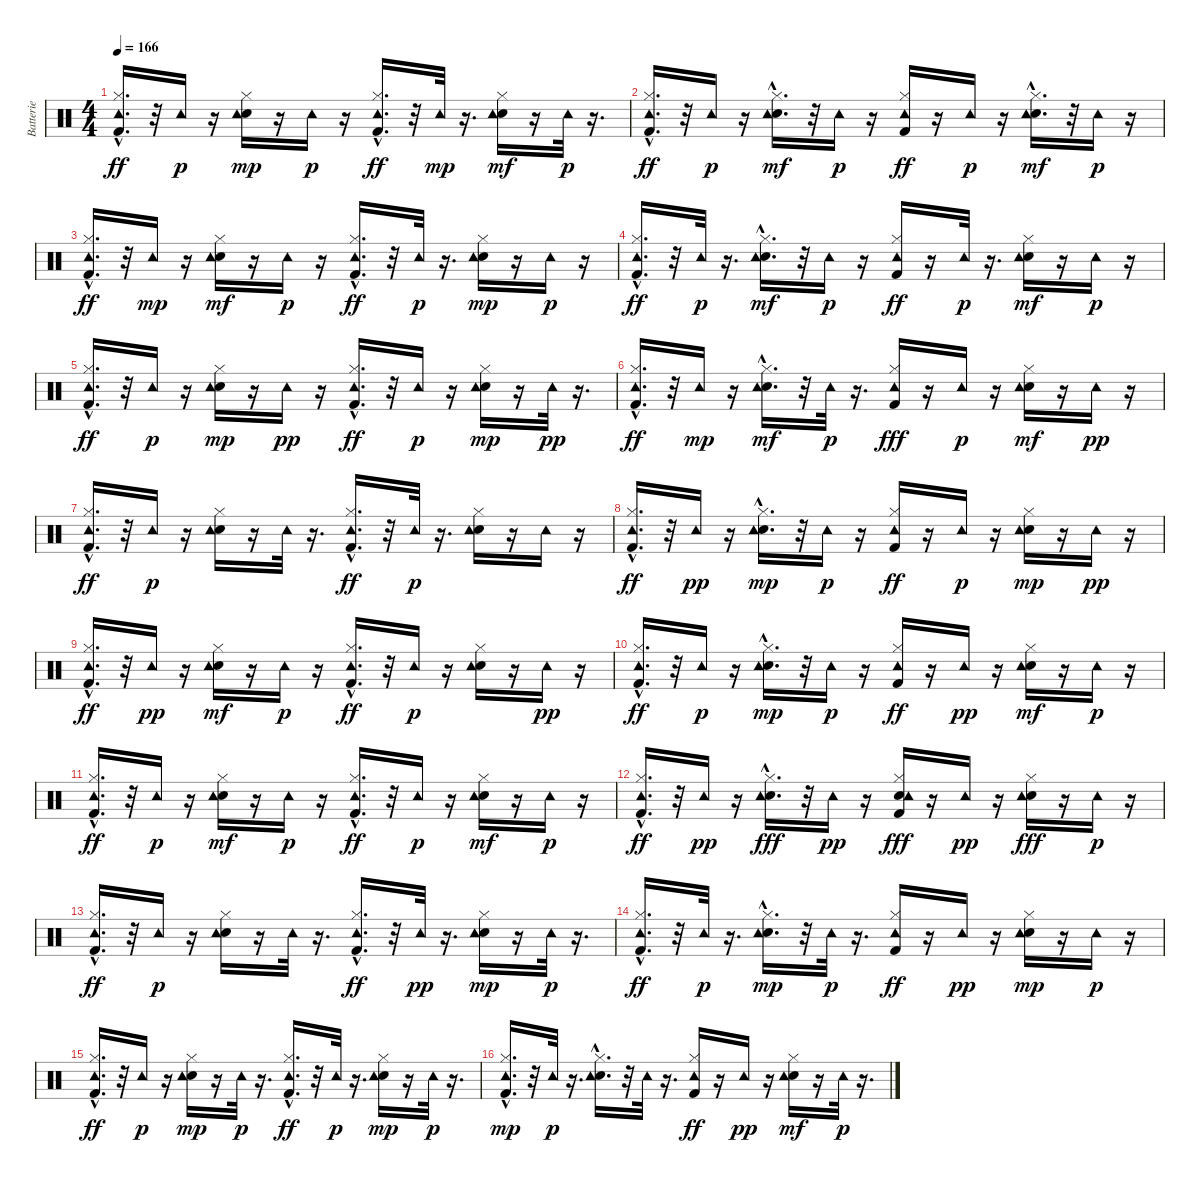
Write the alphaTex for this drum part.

\track ("Batterie" "Batterie") {instrument percussion}
\staff {score}
\articulation defaults
\ts (4 4)
\tempo 166
\clef neutral
\ks c
("Kick (hit) 2"{hac} "Hi-Hat (closed)"{hac} "Tambourine (hit)").16{d dy ff} r.32 "Tambourine (hit)".16{dy p} r.16 ("Electric Snare (hit)" "Hi-Hat (closed)" "Tambourine (hit)").16{dy mp} r.16 "Tambourine (hit)".16{dy p} r.16 ("Kick (hit) 2"{hac} "Hi-Hat (closed)" "Tambourine (hit)").16{d dy ff} r.32 "Tambourine (hit)".32{dy mp} r.16{d} ("Electric Snare (hit)" "Hi-Hat (closed)" "Tambourine (hit)").16{dy mf} r.16 "Tambourine (hit)".32{dy p} r.16{d} |
("Kick (hit) 2"{hac} "Hi-Hat (closed)" "Tambourine (hit)").16{d dy ff} r.32 "Tambourine (hit)".16{dy p} r.16 ("Electric Snare (hit)" "Hi-Hat (closed)"{hac} "Tambourine (hit)").16{d dy mf} r.32 "Tambourine (hit)".16{dy p} r.16 ("Kick (hit) 2" "Hi-Hat (closed)" "Tambourine (hit)").16{dy ff} r.16 "Tambourine (hit)".16{dy p} r.16 ("Electric Snare (hit)"{hac} "Hi-Hat (closed)" "Tambourine (hit)").16{d dy mf} r.32 "Tambourine (hit)".16{dy p} r.16 |
("Kick (hit) 2"{hac} "Hi-Hat (closed)"{hac} "Tambourine (hit)").16{d dy ff} r.32 "Tambourine (hit)".16{dy mp} r.16 ("Electric Snare (hit)" "Hi-Hat (closed)" "Tambourine (hit)").16{dy mf} r.16 "Tambourine (hit)".16{dy p} r.16 ("Kick (hit) 2"{hac} "Hi-Hat (closed)" "Tambourine (hit)").16{d dy ff} r.32 "Tambourine (hit)".32{dy p} r.16{d} ("Electric Snare (hit)" "Hi-Hat (closed)" "Tambourine (hit)").16{dy mp} r.16 "Tambourine (hit)".16{dy p} r.16 |
("Kick (hit) 2"{hac} "Hi-Hat (closed)" "Tambourine (hit)").16{d dy ff} r.32 "Tambourine (hit)".32{dy p} r.16{d} ("Electric Snare (hit)" "Hi-Hat (closed)"{hac} "Tambourine (hit)").16{d dy mf} r.32 "Tambourine (hit)".16{dy p} r.16 ("Kick (hit) 2" "Hi-Hat (closed)" "Tambourine (hit)").16{dy ff} r.16 "Tambourine (hit)".32{dy p} r.16{d} ("Electric Snare (hit)" "Hi-Hat (closed)" "Tambourine (hit)").16{dy mf} r.16 "Tambourine (hit)".16{dy p} r.16 |
("Kick (hit) 2"{hac} "Hi-Hat (closed)"{hac} "Tambourine (hit)").16{d dy ff} r.32 "Tambourine (hit)".16{dy p} r.16 ("Electric Snare (hit)" "Hi-Hat (closed)" "Tambourine (hit)").16{dy mp} r.16 "Tambourine (hit)".16{dy pp} r.16 ("Kick (hit) 2"{hac} "Hi-Hat (closed)" "Tambourine (hit)").16{d dy ff} r.32 "Tambourine (hit)".16{dy p} r.16 ("Electric Snare (hit)" "Hi-Hat (closed)" "Tambourine (hit)").16{dy mp} r.16 "Tambourine (hit)".32{dy pp} r.16{d} |
("Kick (hit) 2"{hac} "Hi-Hat (closed)" "Tambourine (hit)").16{d dy ff} r.32 "Tambourine (hit)".16{dy mp} r.16 ("Electric Snare (hit)" "Hi-Hat (closed)"{hac} "Tambourine (hit)").16{d dy mf} r.32 "Tambourine (hit)".32{dy p} r.16{d} ("Kick (hit) 2" "Hi-Hat (closed)" "Tambourine (hit)").16{dy fff} r.16 "Tambourine (hit)".16{dy p} r.16 ("Electric Snare (hit)" "Hi-Hat (closed)" "Tambourine (hit)").16{dy mf} r.16 "Tambourine (hit)".16{dy pp} r.16 |
("Kick (hit) 2"{hac} "Hi-Hat (closed)"{hac} "Tambourine (hit)").16{d dy ff} r.32 "Tambourine (hit)".16{dy p} r.16 ("Electric Snare (hit)" "Hi-Hat (closed)" "Tambourine (hit)").16 r.16 "Tambourine (hit)".32 r.16{d} ("Kick (hit) 2"{hac} "Hi-Hat (closed)" "Tambourine (hit)").16{d dy ff} r.32 "Tambourine (hit)".32{dy p} r.16{d} ("Electric Snare (hit)" "Hi-Hat (closed)" "Tambourine (hit)").16 r.16 "Tambourine (hit)".16 r.16 |
("Kick (hit) 2"{hac} "Hi-Hat (closed)" "Tambourine (hit)").16{d dy ff} r.32 "Tambourine (hit)".16{dy pp} r.16 ("Electric Snare (hit)" "Hi-Hat (closed)"{hac} "Tambourine (hit)").16{d dy mp} r.32 "Tambourine (hit)".16{dy p} r.16 ("Kick (hit) 2" "Hi-Hat (closed)" "Tambourine (hit)").16{dy ff} r.16 "Tambourine (hit)".16{dy p} r.16 ("Electric Snare (hit)" "Hi-Hat (closed)" "Tambourine (hit)").16{dy mp} r.16 "Tambourine (hit)".16{dy pp} r.16 |
("Kick (hit) 2"{hac} "Hi-Hat (closed)"{hac} "Tambourine (hit)").16{d dy ff} r.32 "Tambourine (hit)".16{dy pp} r.16 ("Electric Snare (hit)" "Hi-Hat (closed)" "Tambourine (hit)").16{dy mf} r.16 "Tambourine (hit)".16{dy p} r.16 ("Kick (hit) 2"{hac} "Hi-Hat (closed)" "Tambourine (hit)").16{d dy ff} r.32 "Tambourine (hit)".16{dy p} r.16 ("Electric Snare (hit)" "Hi-Hat (closed)" "Tambourine (hit)").16 r.16 "Tambourine (hit)".16{dy pp} r.16 |
("Kick (hit) 2"{hac} "Hi-Hat (closed)" "Tambourine (hit)").16{d dy ff} r.32 "Tambourine (hit)".16{dy p} r.16 ("Electric Snare (hit)" "Hi-Hat (closed)"{hac} "Tambourine (hit)").16{d dy mp} r.32 "Tambourine (hit)".16{dy p} r.16 ("Kick (hit) 2" "Hi-Hat (closed)" "Tambourine (hit)").16{dy ff} r.16 "Tambourine (hit)".16{dy pp} r.16 ("Electric Snare (hit)" "Hi-Hat (closed)" "Tambourine (hit)").16{dy mf} r.16 "Tambourine (hit)".16{dy p} r.16 |
("Kick (hit) 2"{hac} "Hi-Hat (closed)"{hac} "Tambourine (hit)").16{d dy ff} r.32 "Tambourine (hit)".16{dy p} r.16 ("Electric Snare (hit)" "Hi-Hat (closed)" "Tambourine (hit)").16{dy mf} r.16 "Tambourine (hit)".16{dy p} r.16 ("Kick (hit) 2"{hac} "Hi-Hat (closed)" "Tambourine (hit)").16{d dy ff} r.32 "Tambourine (hit)".16{dy p} r.16 ("Electric Snare (hit)" "Hi-Hat (closed)" "Tambourine (hit)").16{dy mf} r.16 "Tambourine (hit)".16{dy p} r.16 |
("Kick (hit) 2"{hac} "Hi-Hat (closed)" "Tambourine (hit)").16{d dy ff} r.32 "Tambourine (hit)".16{dy pp} r.16 ("Electric Snare (hit)" "Hi-Hat (closed)"{hac} "Tambourine (hit)").16{d dy fff} r.32 "Tambourine (hit)".16{dy pp} r.16 ("Kick (hit) 2" "Electric Snare (hit)" "Hi-Hat (closed)" "Tambourine (hit)").16{dy fff} r.16 "Tambourine (hit)".16{dy pp} r.16 ("Electric Snare (hit)" "Hi-Hat (closed)" "Tambourine (hit)").16{dy fff} r.16 "Tambourine (hit)".16{dy p} r.16 |
("Kick (hit) 2"{hac} "Hi-Hat (closed)"{hac} "Tambourine (hit)").16{d dy ff} r.32 "Tambourine (hit)".16{dy p} r.16 ("Electric Snare (hit)" "Hi-Hat (closed)" "Tambourine (hit)").16 r.16 "Tambourine (hit)".32 r.16{d} ("Kick (hit) 2"{hac} "Hi-Hat (closed)" "Tambourine (hit)").16{d dy ff} r.32 "Tambourine (hit)".32{dy pp} r.16{d} ("Electric Snare (hit)" "Hi-Hat (closed)" "Tambourine (hit)").16{dy mp} r.16 "Tambourine (hit)".32{dy p} r.16{d} |
("Kick (hit) 2"{hac} "Hi-Hat (closed)" "Tambourine (hit)").16{d dy ff} r.32 "Tambourine (hit)".32{dy p} r.16{d} ("Electric Snare (hit)" "Hi-Hat (closed)"{hac} "Tambourine (hit)").16{d dy mp} r.32 "Tambourine (hit)".32{dy p} r.16{d} ("Kick (hit) 2" "Hi-Hat (closed)" "Tambourine (hit)").16{dy ff} r.16 "Tambourine (hit)".16{dy pp} r.16 ("Electric Snare (hit)" "Hi-Hat (closed)" "Tambourine (hit)").16{dy mp} r.16 "Tambourine (hit)".16{dy p} r.16 |
("Kick (hit) 2"{hac} "Hi-Hat (closed)"{hac} "Tambourine (hit)").16{d dy ff} r.32 "Tambourine (hit)".16{dy p} r.16 ("Electric Snare (hit)" "Hi-Hat (closed)" "Tambourine (hit)").16{dy mp} r.16 "Tambourine (hit)".32{dy p} r.16{d} ("Kick (hit) 2"{hac} "Hi-Hat (closed)" "Tambourine (hit)").16{d dy ff} r.32 "Tambourine (hit)".32{dy p} r.16{d} ("Electric Snare (hit)" "Hi-Hat (closed)" "Tambourine (hit)").16{dy mp} r.16 "Tambourine (hit)".32{dy p} r.16{d} |
("Kick (hit) 2"{hac} "Hi-Hat (closed)" "Tambourine (hit)").16{d dy mp} r.32 "Tambourine (hit)".32{dy p} r.16{d} ("Electric Snare (hit)" "Hi-Hat (closed)"{hac} "Tambourine (hit)").16{d} r.32 "Tambourine (hit)".32 r.16{d} ("Kick (hit) 2" "Hi-Hat (closed)" "Tambourine (hit)").16{dy ff} r.16 "Tambourine (hit)".16{dy pp} r.16 ("Electric Snare (hit)" "Hi-Hat (closed)" "Tambourine (hit)").16{dy mf} r.16 "Tambourine (hit)".32{dy p} r.16{d}
